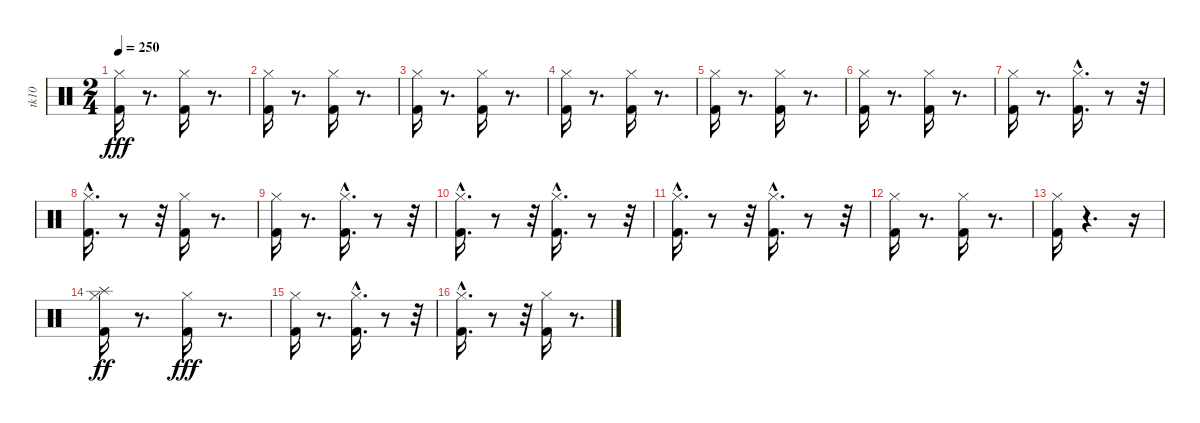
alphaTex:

\track ("tk10" "tk10") {instrument percussion}
\staff {score}
\articulation defaults
\ts (2 4)
\tempo 250
\clef neutral
\ks c
("Kick (hit) 2" "Hi-Hat (closed)").16{dy fff} r.8{d} ("Kick (hit) 2" "Hi-Hat (closed)").16 r.8{d} |
("Kick (hit) 2" "Hi-Hat (closed)").16 r.8{d} ("Hi-Hat (closed)" "Kick (hit) 2").16 r.8{d} |
("Hi-Hat (closed)" "Kick (hit) 2").16 r.8{d} ("Hi-Hat (closed)" "Kick (hit) 2").16 r.8{d} |
("Hi-Hat (closed)" "Kick (hit) 2").16 r.8{d} ("Hi-Hat (closed)" "Kick (hit) 2").16 r.8{d} |
("Hi-Hat (closed)" "Kick (hit) 2").16 r.8{d} ("Kick (hit) 2" "Hi-Hat (closed)").16 r.8{d} |
("Hi-Hat (closed)" "Kick (hit) 2").16 r.8{d} ("Kick (hit) 2" "Hi-Hat (closed)").16 r.8{d} |
("Hi-Hat (closed)" "Kick (hit) 2").16 r.8{d} ("Hi-Hat (closed)" "Kick (hit) 2"{hac}).16{d} r.8 r.32 |
("Hi-Hat (closed)"{hac} "Kick (hit) 2").16{d} r.8 r.32 ("Hi-Hat (closed)" "Kick (hit) 2").16 r.8{d} |
("Hi-Hat (closed)" "Kick (hit) 2").16 r.8{d} ("Hi-Hat (closed)" "Kick (hit) 2"{hac}).16{d} r.8 r.32 |
("Hi-Hat (closed)" "Kick (hit) 2"{hac}).16{d} r.8 r.32 ("Hi-Hat (closed)" "Kick (hit) 2"{hac}).16{d} r.8 r.32 |
("Hi-Hat (closed)"{hac} "Kick (hit) 2").16{d} r.8 r.32 ("Hi-Hat (closed)"{hac} "Kick (hit) 2"{hac}).16{d} r.8 r.32 |
("Hi-Hat (closed)" "Kick (hit) 2").16 r.8{d} ("Kick (hit) 2" "Hi-Hat (closed)").16 r.8{d} |
("Kick (hit) 2" "Hi-Hat (closed)").16 r.4{d} r.16 |
("Hi-Hat (closed)" "Kick (hit) 2" "Splash (hit)").16{dy ff} r.8{d} ("Kick (hit) 2" "Hi-Hat (closed)").16{dy fff} r.8{d} |
("Hi-Hat (closed)" "Kick (hit) 2").16 r.8{d} ("Hi-Hat (closed)" "Kick (hit) 2"{hac}).16{d} r.8 r.32 |
("Hi-Hat (closed)"{hac} "Kick (hit) 2").16{d} r.8 r.32 ("Hi-Hat (closed)" "Kick (hit) 2").16 r.8{d}
